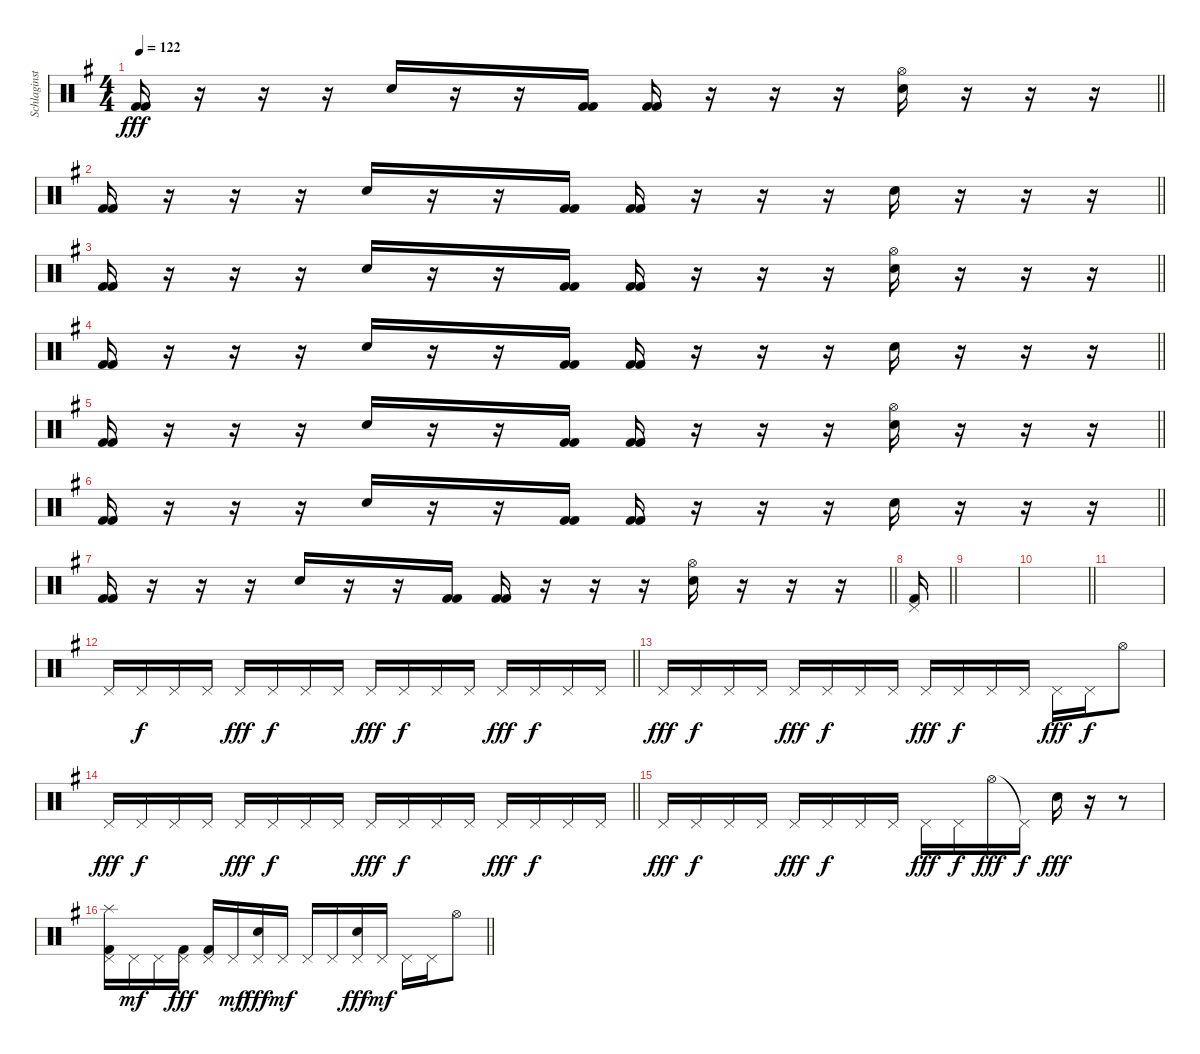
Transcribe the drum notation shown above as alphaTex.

\track ("Schlaginstrumente - Auswahl" "Schlaginst") {instrument percussion}
\staff {score}
\articulation defaults
\ts (4 4)
\tempo 122
\clef neutral
\barLineRight lightlight
\ks g
("Kick (hit) 2" "Kick (hit) 2").16{dy fff} r.16 r.16 r.16 "Electric Snare (hit)".16 r.16 r.16 ("Kick (hit) 2" "Kick (hit) 2").16 ("Kick (hit) 2" "Kick (hit) 2").16 r.16 r.16 r.16 ("Hi-Hat (open)" "Electric Snare (hit)").16 r.16 r.16 r.16 |
\barLineRight lightlight
("Kick (hit) 2" "Kick (hit) 2").16 r.16 r.16 r.16 "Electric Snare (hit)".16 r.16 r.16 ("Kick (hit) 2" "Kick (hit) 2").16 ("Kick (hit) 2" "Kick (hit) 2").16 r.16 r.16 r.16 "Electric Snare (hit)".16 r.16 r.16 r.16 |
\barLineRight lightlight
("Kick (hit) 2" "Kick (hit) 2").16 r.16 r.16 r.16 "Electric Snare (hit)".16 r.16 r.16 ("Kick (hit) 2" "Kick (hit) 2").16 ("Kick (hit) 2" "Kick (hit) 2").16 r.16 r.16 r.16 ("Hi-Hat (open)" "Electric Snare (hit)").16 r.16 r.16 r.16 |
\barLineRight lightlight
("Kick (hit) 2" "Kick (hit) 2").16 r.16 r.16 r.16 "Electric Snare (hit)".16 r.16 r.16 ("Kick (hit) 2" "Kick (hit) 2").16 ("Kick (hit) 2" "Kick (hit) 2").16 r.16 r.16 r.16 "Electric Snare (hit)".16 r.16 r.16 r.16 |
\barLineRight lightlight
("Kick (hit) 2" "Kick (hit) 2").16 r.16 r.16 r.16 "Electric Snare (hit)".16 r.16 r.16 ("Kick (hit) 2" "Kick (hit) 2").16 ("Kick (hit) 2" "Kick (hit) 2").16 r.16 r.16 r.16 ("Hi-Hat (open)" "Electric Snare (hit)").16 r.16 r.16 r.16 |
\barLineRight lightlight
("Kick (hit) 2" "Kick (hit) 2").16 r.16 r.16 r.16 "Electric Snare (hit)".16 r.16 r.16 ("Kick (hit) 2" "Kick (hit) 2").16 ("Kick (hit) 2" "Kick (hit) 2").16 r.16 r.16 r.16 "Electric Snare (hit)".16 r.16 r.16 r.16 |
\barLineRight lightlight
("Kick (hit) 2" "Kick (hit) 2").16 r.16 r.16 r.16 "Electric Snare (hit)".16 r.16 r.16 ("Kick (hit) 2" "Kick (hit) 2").16 ("Kick (hit) 2" "Kick (hit) 2").16 r.16 r.16 r.16 ("Hi-Hat (open)" "Electric Snare (hit)").16 r.16 r.16 r.16 |
\barLineRight lightlight
("Pedal Hi-Hat (hit)" "Kick (hit) 2").16 |
|
\barLineRight lightlight
|
|
\barLineRight lightlight "Pedal Hi-Hat (hit)".16 "Pedal Hi-Hat (hit)".16{dy f} "Pedal Hi-Hat (hit)".16 "Pedal Hi-Hat (hit)".16 "Pedal Hi-Hat (hit)".16{dy fff} "Pedal Hi-Hat (hit)".16{dy f} "Pedal Hi-Hat (hit)".16 "Pedal Hi-Hat (hit)".16 "Pedal Hi-Hat (hit)".16{dy fff} "Pedal Hi-Hat (hit)".16{dy f} "Pedal Hi-Hat (hit)".16 "Pedal Hi-Hat (hit)".16 "Pedal Hi-Hat (hit)".16{dy fff} "Pedal Hi-Hat (hit)".16{dy f} "Pedal Hi-Hat (hit)".16 "Pedal Hi-Hat (hit)".16
|
"Pedal Hi-Hat (hit)".16{dy fff} "Pedal Hi-Hat (hit)".16{dy f} "Pedal Hi-Hat (hit)".16 "Pedal Hi-Hat (hit)".16 "Pedal Hi-Hat (hit)".16{dy fff} "Pedal Hi-Hat (hit)".16{dy f} "Pedal Hi-Hat (hit)".16 "Pedal Hi-Hat (hit)".16 "Pedal Hi-Hat (hit)".16{dy fff} "Pedal Hi-Hat (hit)".16{dy f} "Pedal Hi-Hat (hit)".16 "Pedal Hi-Hat (hit)".16 "Pedal Hi-Hat (hit)".16{dy fff} "Pedal Hi-Hat (hit)".16{dy f} "Hi-Hat (open)".8 |
\barLineRight lightlight "Pedal Hi-Hat (hit)".16{dy fff} "Pedal Hi-Hat (hit)".16{dy f} "Pedal Hi-Hat (hit)".16 "Pedal Hi-Hat (hit)".16 "Pedal Hi-Hat (hit)".16{dy fff} "Pedal Hi-Hat (hit)".16{dy f} "Pedal Hi-Hat (hit)".16 "Pedal Hi-Hat (hit)".16 "Pedal Hi-Hat (hit)".16{dy fff} "Pedal Hi-Hat (hit)".16{dy f} "Pedal Hi-Hat (hit)".16 "Pedal Hi-Hat (hit)".16 "Pedal Hi-Hat (hit)".16{dy fff} "Pedal Hi-Hat (hit)".16{dy f} "Pedal Hi-Hat (hit)".16 "Pedal Hi-Hat (hit)".16
|
"Pedal Hi-Hat (hit)".16{dy fff} "Pedal Hi-Hat (hit)".16{dy f} "Pedal Hi-Hat (hit)".16 "Pedal Hi-Hat (hit)".16 "Pedal Hi-Hat (hit)".16{dy fff} "Pedal Hi-Hat (hit)".16{dy f} "Pedal Hi-Hat (hit)".16 "Pedal Hi-Hat (hit)".16 "Pedal Hi-Hat (hit)".16{dy fff} "Pedal Hi-Hat (hit)".16{dy f} "Hi-Hat (open)".16{dy fff} "Pedal Hi-Hat (hit)"{t}.16{dy f} "Electric Snare (hit)".16{dy fff} r.16 r.8 |
\barLineRight lightlight
("Splash (hit)" "Pedal Hi-Hat (hit)" "Kick (hit) 2").16 "Pedal Hi-Hat (hit)".16{dy mf} "Pedal Hi-Hat (hit)".16 ("Pedal Hi-Hat (hit)" "Kick (hit) 2").16{dy fff} ("Pedal Hi-Hat (hit)" "Kick (hit) 2").16 "Pedal Hi-Hat (hit)".16{dy mf} ("Pedal Hi-Hat (hit)" "Electric Snare (hit)").16{dy fff} "Pedal Hi-Hat (hit)".16{dy mf} "Pedal Hi-Hat (hit)".16 "Pedal Hi-Hat (hit)".16 ("Pedal Hi-Hat (hit)" "Electric Snare (hit)").16{dy fff} "Pedal Hi-Hat (hit)".16{dy mf} "Pedal Hi-Hat (hit)".16 "Pedal Hi-Hat (hit)".16 "Hi-Hat (open)".8
